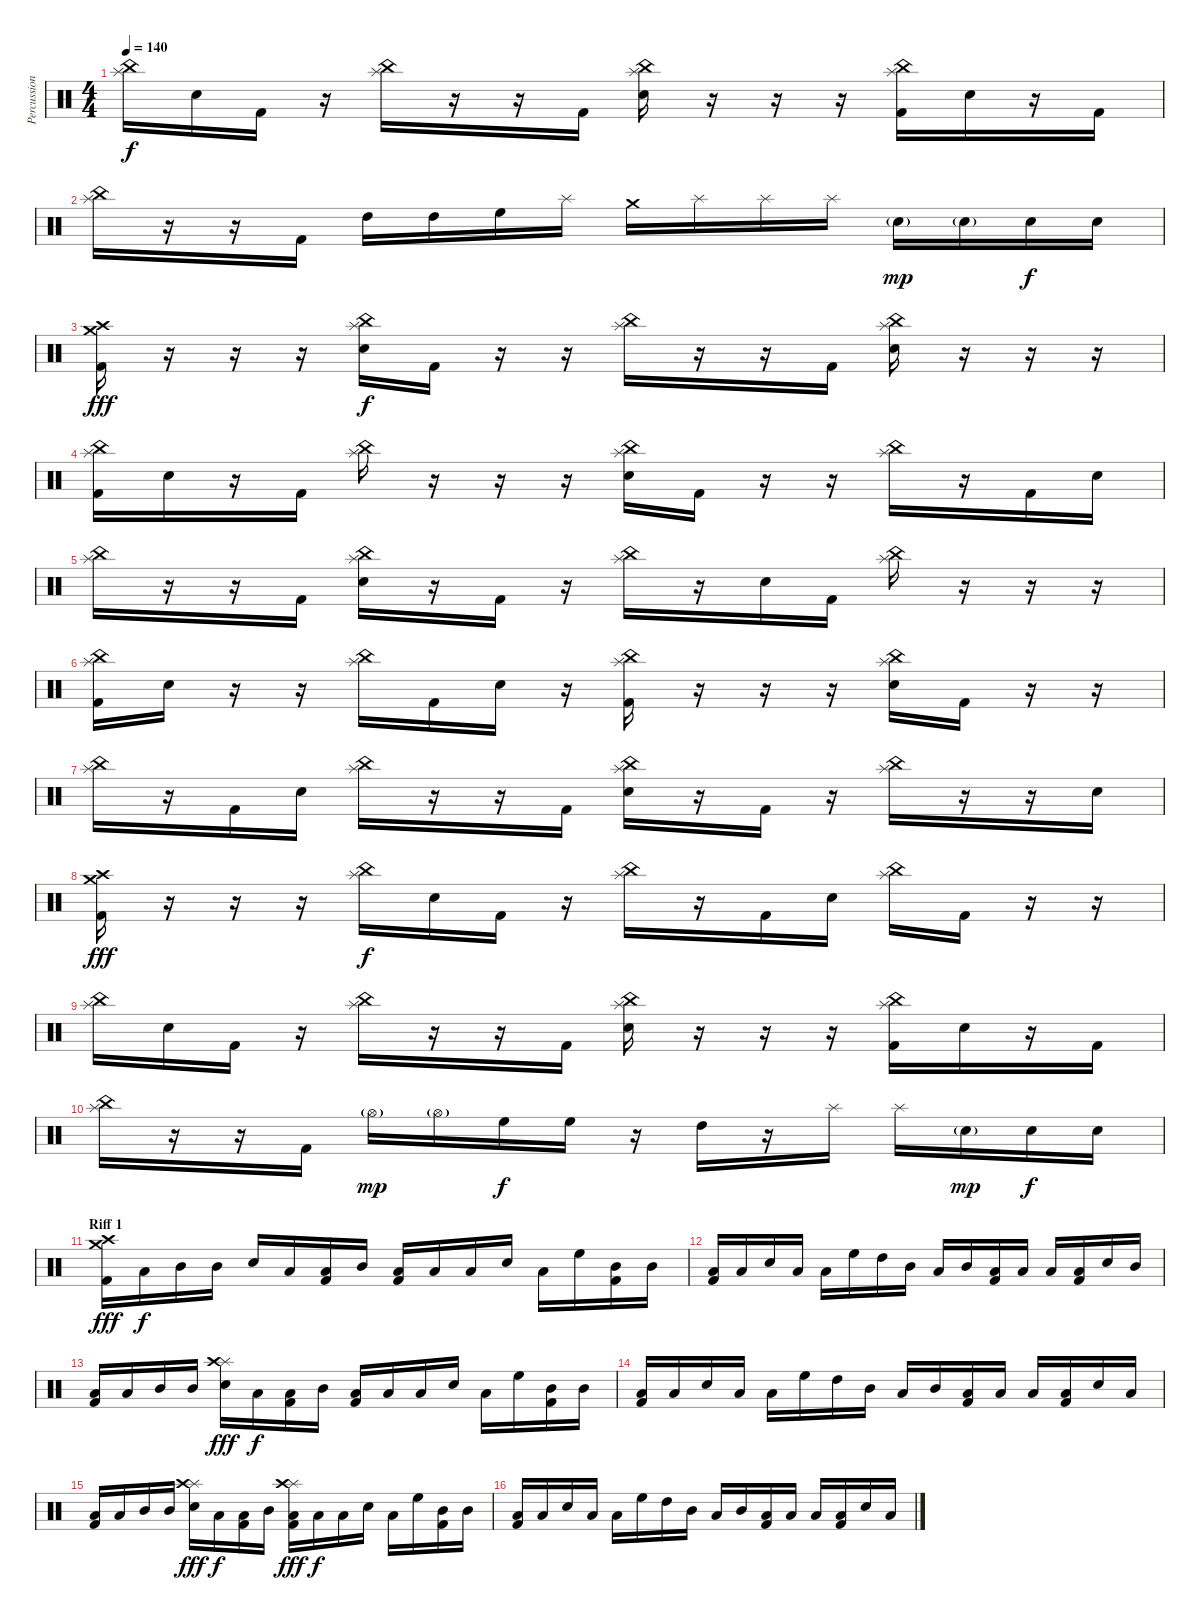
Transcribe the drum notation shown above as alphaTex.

\track ("Percussion" "Percussion") {instrument percussion}
\staff {score}
\articulation defaults
\ts (4 4)
\tempo 140
\clef neutral
\ks c
("China (hit)" "Splash (hit)").16{dy f} "Electric Snare (hit)".16 "Kick (hit) 2".16 r.16 ("China (hit)" "Splash (hit)").16 r.16 r.16 "Kick (hit) 2".16 ("China (hit)" "Splash (hit)" "Electric Snare (hit)").16 r.16 r.16 r.16 ("China (hit)" "Splash (hit)" "Kick (hit) 2").16 "Electric Snare (hit)".16 r.16 "Kick (hit) 2".16 |
("China (hit)" "Splash (hit)").16 r.16 r.16 "Kick (hit) 2".16 "High Tom (hit)".16 "High Tom (hit)".16 "High Floor Tom (hit)".16 "Splash (hit)".16 "Crash medium (hit)".16 "Splash (hit)".16 "Splash (hit)".16 "Splash (hit)".16 "Electric Snare (hit)"{g}.16{dy mp} "Electric Snare (hit)"{g}.16 "Electric Snare (hit)".16{dy f} "Electric Snare (hit)".16 |
("Crash medium (hit)" "Crash high (hit)" "Kick (hit) 2").16{dy fff} r.16 r.16 r.16 ("China (hit)" "Splash (hit)" "Electric Snare (hit)").16{dy f} "Kick (hit) 2".16 r.16 r.16 ("China (hit)" "Splash (hit)").16 r.16 r.16 "Kick (hit) 2".16 ("China (hit)" "Splash (hit)" "Electric Snare (hit)").16 r.16 r.16 r.16 |
("China (hit)" "Splash (hit)" "Kick (hit) 2").16 "Electric Snare (hit)".16 r.16 "Kick (hit) 2".16 ("China (hit)" "Splash (hit)").16 r.16 r.16 r.16 ("China (hit)" "Splash (hit)" "Electric Snare (hit)").16 "Kick (hit) 2".16 r.16 r.16 ("China (hit)" "Splash (hit)").16 r.16 "Kick (hit) 2".16 "Electric Snare (hit)".16 |
("China (hit)" "Splash (hit)").16 r.16 r.16 "Kick (hit) 2".16 ("China (hit)" "Splash (hit)" "Electric Snare (hit)").16 r.16 "Kick (hit) 2".16 r.16 ("China (hit)" "Splash (hit)").16 r.16 "Electric Snare (hit)".16 "Kick (hit) 2".16 ("China (hit)" "Splash (hit)").16 r.16 r.16 r.16 |
("China (hit)" "Splash (hit)" "Kick (hit) 2").16 "Electric Snare (hit)".16 r.16 r.16 ("China (hit)" "Splash (hit)").16 "Kick (hit) 2".16 "Electric Snare (hit)".16 r.16 ("China (hit)" "Splash (hit)" "Kick (hit) 2").16 r.16 r.16 r.16 ("China (hit)" "Splash (hit)" "Electric Snare (hit)").16 "Kick (hit) 2".16 r.16 r.16 |
("China (hit)" "Splash (hit)").16 r.16 "Kick (hit) 2".16 "Electric Snare (hit)".16 ("China (hit)" "Splash (hit)").16 r.16 r.16 "Kick (hit) 2".16 ("China (hit)" "Splash (hit)" "Electric Snare (hit)").16 r.16 "Kick (hit) 2".16 r.16 ("China (hit)" "Splash (hit)").16 r.16 r.16 "Electric Snare (hit)".16 |
("Crash medium (hit)" "Crash high (hit)" "Kick (hit) 2").16{dy fff} r.16 r.16 r.16 ("China (hit)" "Splash (hit)").16{dy f} "Electric Snare (hit)".16 "Kick (hit) 2".16 r.16 ("China (hit)" "Splash (hit)").16 r.16 "Kick (hit) 2".16 "Electric Snare (hit)".16 ("China (hit)" "Splash (hit)").16 "Kick (hit) 2".16 r.16 r.16 |
("China (hit)" "Splash (hit)").16 "Electric Snare (hit)".16 "Kick (hit) 2".16 r.16 ("China (hit)" "Splash (hit)").16 r.16 r.16 "Kick (hit) 2".16 ("China (hit)" "Splash (hit)" "Electric Snare (hit)").16 r.16 r.16 r.16 ("China (hit)" "Splash (hit)" "Kick (hit) 2").16 "Electric Snare (hit)".16 r.16 "Kick (hit) 2".16 |
("China (hit)" "Splash (hit)").16 r.16 r.16 "Kick (hit) 2".16 "Hi-Hat (open)"{g}.16{dy mp} "Hi-Hat (open)"{g}.16 "High Floor Tom (hit)".16{dy f} "High Floor Tom (hit)".16 r.16 "High Tom (hit)".16 r.16 "Splash (hit)".16 "Splash (hit)".16 "Electric Snare (hit)"{g}.16{dy mp} "Electric Snare (hit)".16{dy f} "Electric Snare (hit)".16 |
\section ("" "Riff 1")
("Crash medium (hit)" "Crash high (hit)" "Kick (hit) 2").16{dy fff} "Low Floor Tom (hit)".16{dy f} "Mid Tom (hit)".16 "Mid Tom (hit)".16 "Electric Snare (hit)".16 "Low Tom (hit)".16 ("Low Floor Tom (hit)" "Kick (hit) 2").16 "Mid Tom (hit)".16 ("Low Tom (hit)" "Kick (hit) 2").16 "Low Tom (hit)".16 "Low Floor Tom (hit)".16 "Electric Snare (hit)".16 "Low Floor Tom (hit)".16 "High Floor Tom (hit)".16 ("Mid Tom (hit)" "Kick (hit) 2").16 "Mid Tom (hit)".16 |
("Low Tom (hit)" "Kick (hit) 2").16 "Low Floor Tom (hit)".16 "Electric Snare (hit)".16 "Low Tom (hit)".16 "Low Floor Tom (hit)".16 "High Floor Tom (hit)".16 "High Tom (hit)".16 "Mid Tom (hit)".16 "Low Tom (hit)".16 "Mid Tom (hit)".16 ("Low Tom (hit)" "Kick (hit) 2").16 "Low Floor Tom (hit)".16 "Low Tom (hit)".16 ("Low Floor Tom (hit)" "Kick (hit) 2").16 "Electric Snare (hit)".16 "Mid Tom (hit)".16 |
("Low Tom (hit)" "Kick (hit) 2").16 "Low Floor Tom (hit)".16 "Mid Tom (hit)".16 "Mid Tom (hit)".16 ("Splash (hit)" "Crash high (hit)" "Electric Snare (hit)").16{dy fff} "Low Tom (hit)".16{dy f} ("Low Floor Tom (hit)" "Kick (hit) 2").16 "Mid Tom (hit)".16 ("Low Tom (hit)" "Kick (hit) 2").16 "Low Tom (hit)".16 "Low Floor Tom (hit)".16 "Electric Snare (hit)".16 "Low Floor Tom (hit)".16 "High Floor Tom (hit)".16 ("Mid Tom (hit)" "Kick (hit) 2").16 "Mid Tom (hit)".16 |
("Low Tom (hit)" "Kick (hit) 2").16 "Low Floor Tom (hit)".16 "Electric Snare (hit)".16 "Low Tom (hit)".16 "Low Floor Tom (hit)".16 "High Floor Tom (hit)".16 "High Tom (hit)".16 "Mid Tom (hit)".16 "Low Tom (hit)".16 "Mid Tom (hit)".16 ("Low Tom (hit)" "Kick (hit) 2").16 "Low Floor Tom (hit)".16 "Low Tom (hit)".16 ("Low Floor Tom (hit)" "Kick (hit) 2").16 "Electric Snare (hit)".16 "Low Tom (hit)".16 |
("Low Tom (hit)" "Kick (hit) 2").16 "Low Floor Tom (hit)".16 "Mid Tom (hit)".16 "Mid Tom (hit)".16 ("Splash (hit)" "Crash high (hit)" "Electric Snare (hit)").16{dy fff} "Low Tom (hit)".16{dy f} ("Low Floor Tom (hit)" "Kick (hit) 2").16 "Mid Tom (hit)".16 ("Splash (hit)" "Crash high (hit)" "Low Tom (hit)" "Kick (hit) 2").16{dy fff} "Low Tom (hit)".16{dy f} "Low Floor Tom (hit)".16 "Electric Snare (hit)".16 "Low Floor Tom (hit)".16 "High Floor Tom (hit)".16 ("Mid Tom (hit)" "Kick (hit) 2").16 "Mid Tom (hit)".16 |
("Low Tom (hit)" "Kick (hit) 2").16 "Low Floor Tom (hit)".16 "Electric Snare (hit)".16 "Low Tom (hit)".16 "Low Floor Tom (hit)".16 "High Floor Tom (hit)".16 "High Tom (hit)".16 "Mid Tom (hit)".16 "Low Tom (hit)".16 "Mid Tom (hit)".16 ("Low Tom (hit)" "Kick (hit) 2").16 "Low Floor Tom (hit)".16 "Low Tom (hit)".16 ("Low Floor Tom (hit)" "Kick (hit) 2").16 "Electric Snare (hit)".16 "Low Tom (hit)".16
